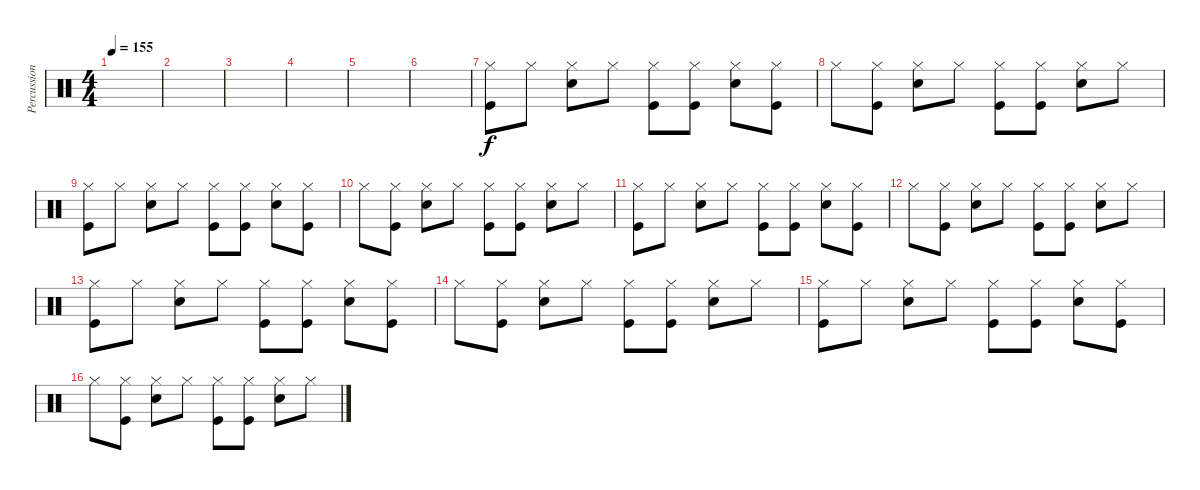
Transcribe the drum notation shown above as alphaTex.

\track ("Percussion" "Percussion") {instrument percussion}
\staff {score}
\articulation defaults
\ts (4 4)
\tempo 155
\clef neutral
\ks c
|
|
|
|
|
|
("Hi-Hat (closed)" "Kick (hit)").8 "Hi-Hat (closed)".8 ("Hi-Hat (closed)" "Electric Snare (hit)").8 "Hi-Hat (closed)".8 ("Hi-Hat (closed)" "Kick (hit)").8 ("Hi-Hat (closed)" "Kick (hit)").8 ("Hi-Hat (closed)" "Electric Snare (hit)").8 ("Hi-Hat (closed)" "Kick (hit)").8 |
"Hi-Hat (closed)".8 ("Hi-Hat (closed)" "Kick (hit)").8 ("Hi-Hat (closed)" "Electric Snare (hit)").8 "Hi-Hat (closed)".8 ("Hi-Hat (closed)" "Kick (hit)").8 ("Hi-Hat (closed)" "Kick (hit)").8 ("Hi-Hat (closed)" "Electric Snare (hit)").8 "Hi-Hat (closed)".8 |
("Hi-Hat (closed)" "Kick (hit)").8 "Hi-Hat (closed)".8 ("Hi-Hat (closed)" "Electric Snare (hit)").8 "Hi-Hat (closed)".8 ("Hi-Hat (closed)" "Kick (hit)").8 ("Hi-Hat (closed)" "Kick (hit)").8 ("Hi-Hat (closed)" "Electric Snare (hit)").8 ("Hi-Hat (closed)" "Kick (hit)").8 |
"Hi-Hat (closed)".8 ("Hi-Hat (closed)" "Kick (hit)").8 ("Hi-Hat (closed)" "Electric Snare (hit)").8 "Hi-Hat (closed)".8 ("Hi-Hat (closed)" "Kick (hit)").8 ("Hi-Hat (closed)" "Kick (hit)").8 ("Hi-Hat (closed)" "Electric Snare (hit)").8 "Hi-Hat (closed)".8 |
("Hi-Hat (closed)" "Kick (hit)").8 "Hi-Hat (closed)".8 ("Hi-Hat (closed)" "Electric Snare (hit)").8 "Hi-Hat (closed)".8 ("Hi-Hat (closed)" "Kick (hit)").8 ("Hi-Hat (closed)" "Kick (hit)").8 ("Hi-Hat (closed)" "Electric Snare (hit)").8 ("Hi-Hat (closed)" "Kick (hit)").8 |
"Hi-Hat (closed)".8 ("Hi-Hat (closed)" "Kick (hit)").8 ("Hi-Hat (closed)" "Electric Snare (hit)").8 "Hi-Hat (closed)".8 ("Hi-Hat (closed)" "Kick (hit)").8 ("Hi-Hat (closed)" "Kick (hit)").8 ("Hi-Hat (closed)" "Electric Snare (hit)").8 "Hi-Hat (closed)".8 |
("Hi-Hat (closed)" "Kick (hit)").8 "Hi-Hat (closed)".8 ("Hi-Hat (closed)" "Electric Snare (hit)").8 "Hi-Hat (closed)".8 ("Hi-Hat (closed)" "Kick (hit)").8 ("Hi-Hat (closed)" "Kick (hit)").8 ("Hi-Hat (closed)" "Electric Snare (hit)").8 ("Hi-Hat (closed)" "Kick (hit)").8 |
"Hi-Hat (closed)".8 ("Hi-Hat (closed)" "Kick (hit)").8 ("Hi-Hat (closed)" "Electric Snare (hit)").8 "Hi-Hat (closed)".8 ("Hi-Hat (closed)" "Kick (hit)").8 ("Hi-Hat (closed)" "Kick (hit)").8 ("Hi-Hat (closed)" "Electric Snare (hit)").8 "Hi-Hat (closed)".8 |
("Hi-Hat (closed)" "Kick (hit)").8 "Hi-Hat (closed)".8 ("Hi-Hat (closed)" "Electric Snare (hit)").8 "Hi-Hat (closed)".8 ("Hi-Hat (closed)" "Kick (hit)").8 ("Hi-Hat (closed)" "Kick (hit)").8 ("Hi-Hat (closed)" "Electric Snare (hit)").8 ("Hi-Hat (closed)" "Kick (hit)").8 |
"Hi-Hat (closed)".8 ("Hi-Hat (closed)" "Kick (hit)").8 ("Hi-Hat (closed)" "Electric Snare (hit)").8 "Hi-Hat (closed)".8 ("Hi-Hat (closed)" "Kick (hit)").8 ("Hi-Hat (closed)" "Kick (hit)").8 ("Hi-Hat (closed)" "Electric Snare (hit)").8 "Hi-Hat (closed)".8
